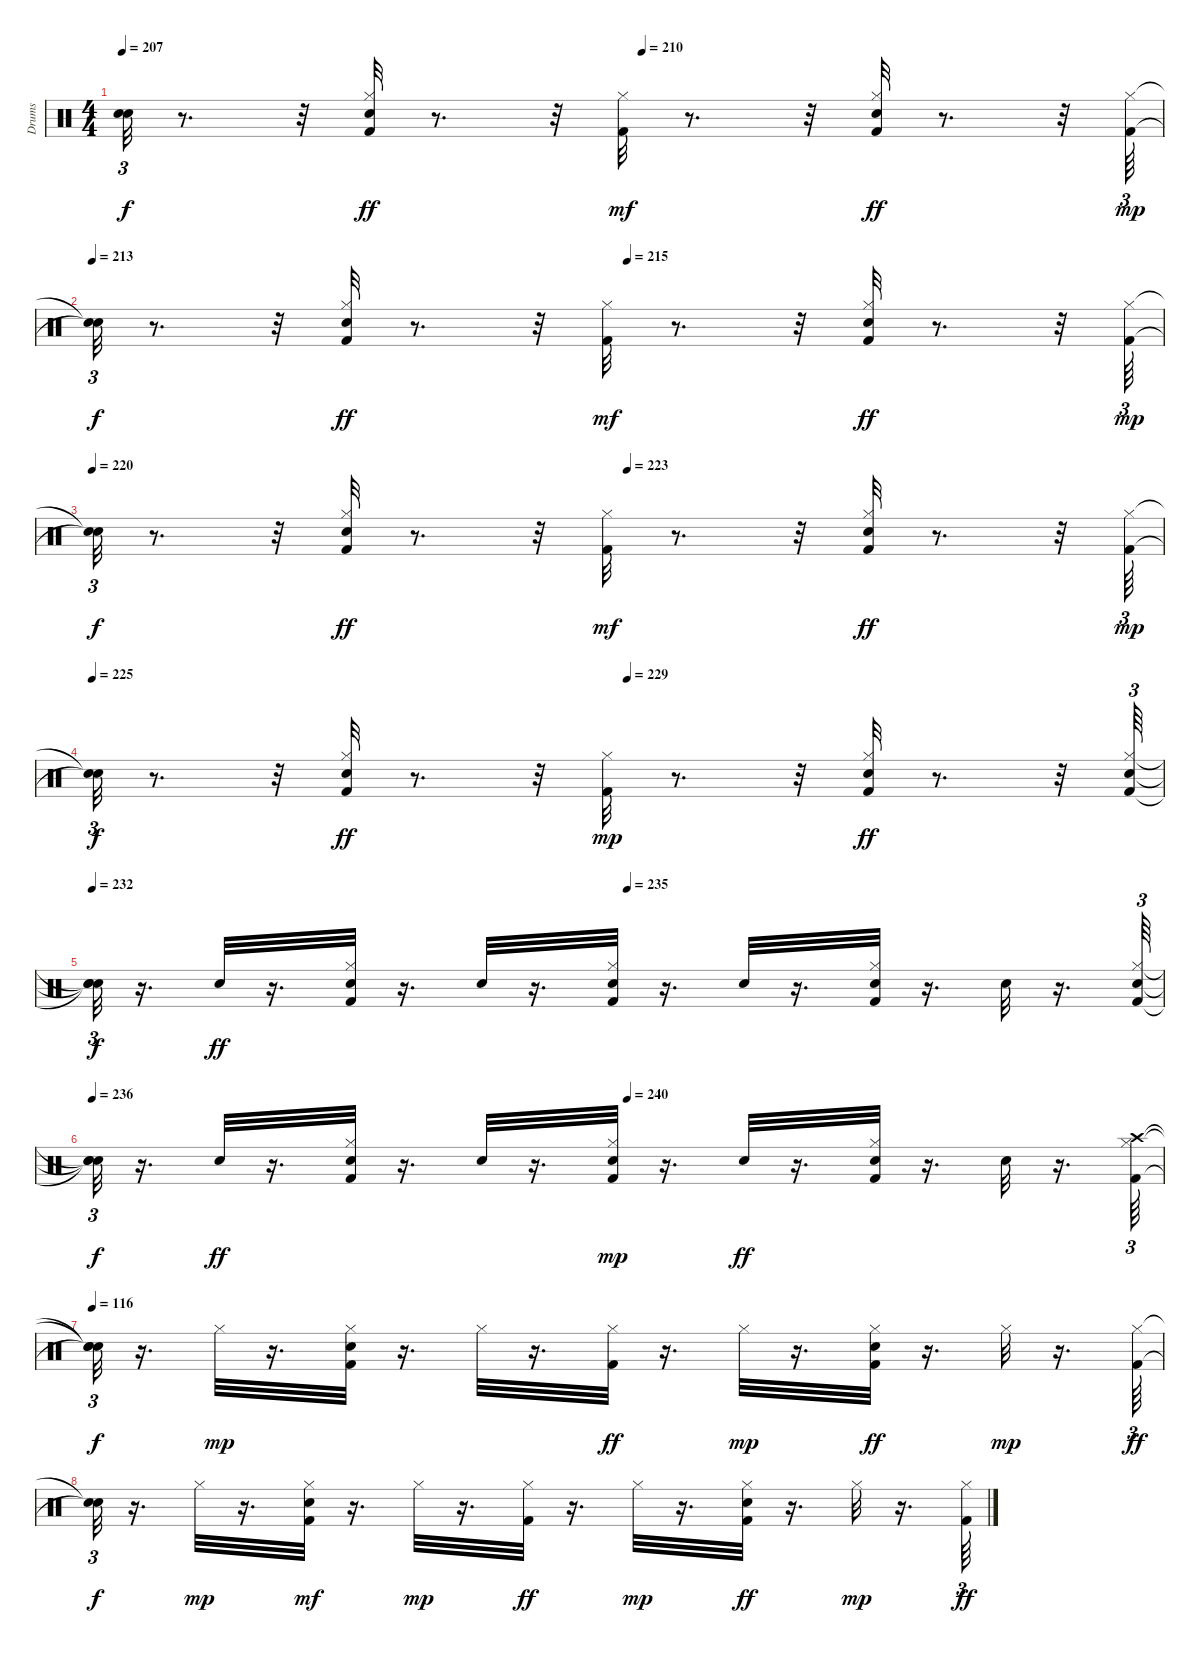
\track ("Drums   " "Drums   ") {instrument percussion}
\staff {score}
\articulation defaults
\ts (4 4)
\tempo 207
\tempo (210 0.5)
\clef neutral
\ks c
("Snare (hit)"{t} "Snare (hit)"{t}).32{tu (3 2) dy f} r.8{d} r.32 ("Hi-Hat (closed)" "Kick (hit) 2" "Snare (hit) 2").32{dy ff} r.8{d} r.32 ("Kick (hit) 2" "Hi-Hat (closed)").32{dy mf} r.8{d} r.32 ("Hi-Hat (closed)" "Snare (hit) 2" "Kick (hit) 2").32{dy ff} r.8{d} r.32 ("Kick (hit) 2" "Hi-Hat (closed)").64{tu (3 2) dy mp} |
\tempo 213
\tempo (215 0.5)
("Snare (hit)"{t} "Snare (hit)"{t}).32{tu (3 2) dy f} r.8{d} r.32 ("Hi-Hat (closed)" "Kick (hit) 2" "Snare (hit) 2").32{dy ff} r.8{d} r.32 ("Kick (hit) 2" "Hi-Hat (closed)").32{dy mf} r.8{d} r.32 ("Hi-Hat (closed)" "Snare (hit) 2" "Kick (hit) 2").32{dy ff} r.8{d} r.32 ("Kick (hit) 2" "Hi-Hat (closed)").64{tu (3 2) dy mp} |
\tempo 220
\tempo (223 0.5)
("Snare (hit)"{t} "Snare (hit)"{t}).32{tu (3 2) dy f} r.8{d} r.32 ("Hi-Hat (closed)" "Kick (hit) 2" "Snare (hit) 2").32{dy ff} r.8{d} r.32 ("Kick (hit) 2" "Hi-Hat (closed)").32{dy mf} r.8{d} r.32 ("Hi-Hat (closed)" "Snare (hit) 2" "Kick (hit) 2").32{dy ff} r.8{d} r.32 ("Kick (hit) 2" "Hi-Hat (closed)").64{tu (3 2) dy mp} |
\tempo 225
\tempo (229 0.5)
("Snare (hit)"{t} "Snare (hit)"{t}).32{tu (3 2) dy f} r.8{d} r.32 ("Hi-Hat (closed)" "Kick (hit) 2" "Snare (hit) 2").32{dy ff} r.8{d} r.32 ("Kick (hit) 2" "Hi-Hat (closed)").32{dy mp} r.8{d} r.32 ("Hi-Hat (closed)" "Snare (hit) 2" "Kick (hit) 2").32{dy ff} r.8{d} r.32 ("Hi-Hat (closed)" "Kick (hit) 2" "Snare (hit) 2").64{tu (3 2)} |
\tempo 232
\tempo (235 0.5)
("Snare (hit)"{t} "Snare (hit)"{t} "Snare (hit)"{t}).32{tu (3 2) dy f} r.16{d} "Snare (hit) 2".32{dy ff} r.16{d} ("Hi-Hat (closed)" "Snare (hit) 2" "Kick (hit) 2").32 r.16{d} "Snare (hit) 2".32 r.16{d} ("Hi-Hat (closed)" "Snare (hit) 2" "Kick (hit) 2").32 r.16{d} "Snare (hit) 2".32 r.16{d} ("Snare (hit) 2" "Hi-Hat (closed)" "Kick (hit) 2").32 r.16{d} "Snare (hit) 2".32 r.16{d} ("Kick (hit) 2" "Hi-Hat (closed)" "Snare (hit) 2").64{tu (3 2)} |
\tempo 236
\tempo (240 0.5)
("Snare (hit)"{t} "Snare (hit)"{t} "Snare (hit)"{t}).32{tu (3 2) dy f} r.16{d} "Snare (hit) 2".32{dy ff} r.16{d} ("Snare (hit) 2" "Hi-Hat (closed)" "Kick (hit) 2").32 r.16{d} "Snare (hit) 2".32 r.16{d} ("Kick (hit) 2" "Snare (hit) 2" "Hi-Hat (closed)").32{dy mp} r.16{d} "Snare (hit) 2".32{dy ff} r.16{d} ("Hi-Hat (closed)" "Kick (hit) 2" "Snare (hit) 2").32 r.16{d} "Snare (hit) 2".32 r.16{d} ("Crash high (hit)" "Hi-Hat (closed)" "Kick (hit) 2").64{tu (3 2)} |
\tempo 116
("Snare (hit)"{t} "Snare (hit)"{t} "Snare (hit)"{t}).32{tu (3 2) dy f} r.16{d} "Hi-Hat (closed)".32{dy mp} r.16{d} ("Kick (hit) 2" "Snare (hit) 2" "Hi-Hat (closed)").32 r.16{d} "Hi-Hat (closed)".32 r.16{d} ("Hi-Hat (closed)" "Kick (hit) 2").32{dy ff} r.16{d} "Hi-Hat (closed)".32{dy mp} r.16{d} ("Kick (hit) 2" "Hi-Hat (closed)" "Snare (hit) 2").32{dy ff} r.16{d} "Hi-Hat (closed)".32{dy mp} r.16{d} ("Hi-Hat (closed)" "Kick (hit) 2").64{tu (3 2) dy ff} |
("Snare (hit)"{t} "Snare (hit)"{t}).32{tu (3 2) dy f} r.16{d} "Hi-Hat (closed)".32{dy mp} r.16{d} ("Kick (hit) 2" "Snare (hit) 2" "Hi-Hat (closed)").32{dy mf} r.16{d} "Hi-Hat (closed)".32{dy mp} r.16{d} ("Hi-Hat (closed)" "Kick (hit) 2").32{dy ff} r.16{d} "Hi-Hat (closed)".32{dy mp} r.16{d} ("Kick (hit) 2" "Hi-Hat (closed)" "Snare (hit) 2").32{dy ff} r.16{d} "Hi-Hat (closed)".32{dy mp} r.16{d} ("Hi-Hat (closed)" "Kick (hit) 2").64{tu (3 2) dy ff}
